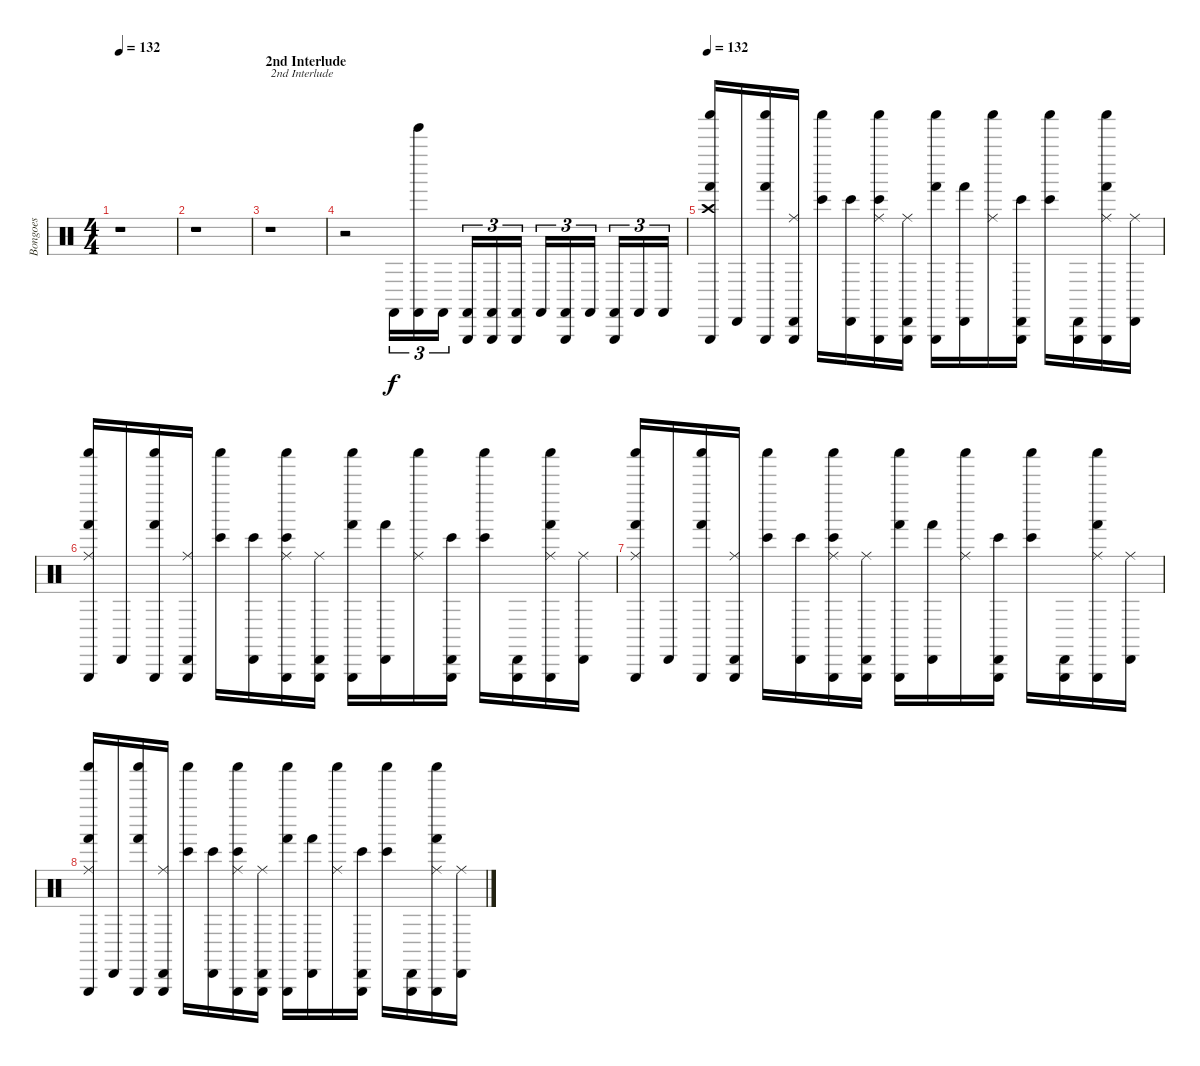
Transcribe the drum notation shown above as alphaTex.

\track ("Bongoes" "Bongoes") {instrument percussion}
\staff {score}
\articulation defaults
\ts (4 4)
\tempo 132
\clef neutral
\ks c
r.1{dy f} |
r.1 |
\section ("" "2nd Interlude")
r.1{txt "2nd Interlude"} |
r.2 "Castanets (hit)".16{tu (3 2)} ("Castanets (hit)" "Tinkle Bell (hit)").16{tu (3 2)} "Castanets (hit)".16{tu (3 2)} ("Castanets (hit)" "Triangle (hit)").16{tu (3 2)} ("Castanets (hit)" "Triangle (hit)").16{tu (3 2)} ("Castanets (hit)" "Triangle (hit)").16{tu (3 2)} "Castanets (hit)".16{tu (3 2)} ("Castanets (hit)" "Triangle (hit)").16{tu (3 2)} "Castanets (hit)".16{tu (3 2)} ("Castanets (hit)" "Triangle (hit)").16{tu (3 2)} "Castanets (hit)".16{tu (3 2)} "Castanets (hit)".16{tu (3 2)} |
\tempo 132
("Shaker (hit)" "Triangle (hit)" "Hand (hit)" "Crash high (hit)").16 "Cabasa (hit)".16 ("Shaker (hit)" "Triangle (hit)" "Hand (hit)").16 ("Cabasa (hit)" "Triangle (hit)" "Ride (middle)").16 ("Shaker (hit)" "Bongo High (hit)").16 ("Cabasa (hit)" "Bongo High (hit)").16 ("Shaker (hit)" "Triangle (hit)" "Bongo High (hit)" "Ride (middle)").16 ("Cabasa (hit)" "Triangle (hit)" "Ride (middle)").16 ("Shaker (hit)" "Triangle (hit)" "Hand (hit)").16 ("Cabasa (hit)" "Hand (hit)").16 ("Shaker (hit)" "Ride (middle)").16 ("Cabasa (hit)" "Triangle (hit)" "Bongo High (hit)").16 ("Shaker (hit)" "Bongo High (hit)").16 ("Cabasa (hit)" "Triangle (hit)").16 ("Shaker (hit)" "Triangle (hit)" "Hand (hit)" "Ride (middle)").16 ("Cabasa (hit)" "Ride (middle)").16 |
("Shaker (hit)" "Triangle (hit)" "Hand (hit)" "Ride (middle)").16 "Cabasa (hit)".16 ("Shaker (hit)" "Triangle (hit)" "Hand (hit)").16 ("Cabasa (hit)" "Triangle (hit)" "Ride (middle)").16 ("Shaker (hit)" "Bongo High (hit)").16 ("Cabasa (hit)" "Bongo High (hit)").16 ("Shaker (hit)" "Triangle (hit)" "Bongo High (hit)" "Ride (middle)").16 ("Cabasa (hit)" "Triangle (hit)" "Ride (middle)").16 ("Shaker (hit)" "Triangle (hit)" "Hand (hit)").16 ("Cabasa (hit)" "Hand (hit)").16 ("Shaker (hit)" "Ride (middle)").16 ("Cabasa (hit)" "Triangle (hit)" "Bongo High (hit)").16 ("Shaker (hit)" "Bongo High (hit)").16 ("Cabasa (hit)" "Triangle (hit)").16 ("Shaker (hit)" "Triangle (hit)" "Hand (hit)" "Ride (middle)").16 ("Cabasa (hit)" "Ride (middle)").16 |
("Shaker (hit)" "Triangle (hit)" "Hand (hit)" "Ride (middle)").16 "Cabasa (hit)".16 ("Shaker (hit)" "Triangle (hit)" "Hand (hit)").16 ("Cabasa (hit)" "Triangle (hit)" "Ride (middle)").16 ("Shaker (hit)" "Bongo High (hit)").16 ("Cabasa (hit)" "Bongo High (hit)").16 ("Shaker (hit)" "Triangle (hit)" "Bongo High (hit)" "Ride (middle)").16 ("Cabasa (hit)" "Triangle (hit)" "Ride (middle)").16 ("Shaker (hit)" "Triangle (hit)" "Hand (hit)").16 ("Cabasa (hit)" "Hand (hit)").16 ("Shaker (hit)" "Ride (middle)").16 ("Cabasa (hit)" "Triangle (hit)" "Bongo High (hit)").16 ("Shaker (hit)" "Bongo High (hit)").16 ("Cabasa (hit)" "Triangle (hit)").16 ("Shaker (hit)" "Triangle (hit)" "Hand (hit)" "Ride (middle)").16 ("Cabasa (hit)" "Ride (middle)").16 |
("Shaker (hit)" "Triangle (hit)" "Hand (hit)" "Ride (middle)").16 "Cabasa (hit)".16 ("Shaker (hit)" "Triangle (hit)" "Hand (hit)").16 ("Cabasa (hit)" "Triangle (hit)" "Ride (middle)").16 ("Shaker (hit)" "Bongo High (hit)").16 ("Cabasa (hit)" "Bongo High (hit)").16 ("Shaker (hit)" "Triangle (hit)" "Bongo High (hit)" "Ride (middle)").16 ("Cabasa (hit)" "Triangle (hit)" "Ride (middle)").16 ("Shaker (hit)" "Triangle (hit)" "Hand (hit)").16 ("Cabasa (hit)" "Hand (hit)").16 ("Shaker (hit)" "Ride (middle)").16 ("Cabasa (hit)" "Triangle (hit)" "Bongo High (hit)").16 ("Shaker (hit)" "Bongo High (hit)").16 ("Cabasa (hit)" "Triangle (hit)").16 ("Shaker (hit)" "Triangle (hit)" "Hand (hit)" "Ride (middle)").16 ("Cabasa (hit)" "Ride (middle)").16
